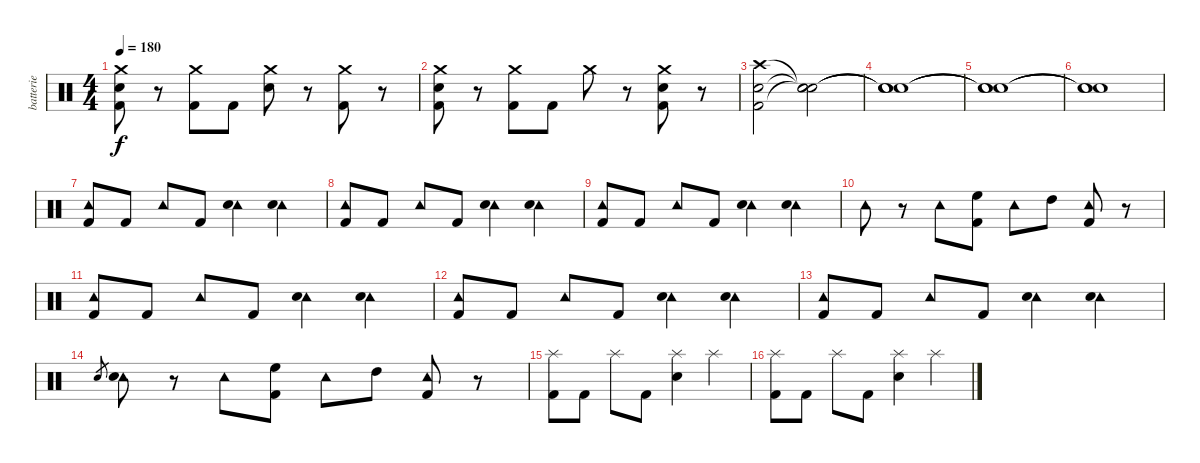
\track ("batterie" "batterie") {instrument percussion}
\staff {score}
\articulation defaults
\ts (4 4)
\tempo 180
\clef neutral
\ks c
("Crash medium (hit)" "Electric Snare (hit)" "Kick (hit) 2").8{dy f} r.8 ("Crash medium (hit)" "Kick (hit) 2").8 "Kick (hit) 2".8 ("Crash medium (hit)" "Electric Snare (hit)").8 r.8 ("Crash medium (hit)" "Kick (hit) 2").8 r.8 |
("Crash medium (hit)" "Electric Snare (hit)" "Kick (hit) 2").8 r.8 ("Crash medium (hit)" "Kick (hit) 2").8 "Kick (hit) 2".8 "Crash medium (hit)".8 r.8 ("Crash medium (hit)" "Electric Snare (hit)" "Kick (hit) 2").8 r.8 |
("Crash high (hit)" "Electric Snare (hit)" "Kick (hit) 2").2 ("Snare (hit)"{t} "Snare (hit)"{t} "Snare (hit)"{t}).2 |
("Snare (hit)"{t} "Snare (hit)"{t} "Snare (hit)"{t}).1 |
("Snare (hit)"{t} "Snare (hit)"{t} "Snare (hit)"{t}).1 |
("Snare (hit)"{t} "Snare (hit)"{t} "Snare (hit)"{t}).1 |
("Tambourine (hit)" "Kick (hit) 2").8 "Kick (hit) 2".8 "Tambourine (hit)".8 "Kick (hit) 2".8 ("Tambourine (hit)" "Electric Snare (hit)").4 ("Tambourine (hit)" "Electric Snare (hit)").4 |
("Tambourine (hit)" "Kick (hit) 2").8 "Kick (hit) 2".8 "Tambourine (hit)".8 "Kick (hit) 2".8 ("Tambourine (hit)" "Electric Snare (hit)").4 ("Tambourine (hit)" "Electric Snare (hit)").4 |
("Tambourine (hit)" "Kick (hit) 2").8 "Kick (hit) 2".8 "Tambourine (hit)".8 "Kick (hit) 2".8 ("Tambourine (hit)" "Electric Snare (hit)").4 ("Tambourine (hit)" "Electric Snare (hit)").4 |
"Tambourine (hit)".8 r.8 "Tambourine (hit)".8 ("High Floor Tom (hit)" "Kick (hit) 2").8 "Tambourine (hit)".8 "High Tom (hit)".8 ("Tambourine (hit)" "Kick (hit) 2").8 r.8 |
("Tambourine (hit)" "Kick (hit) 2").8 "Kick (hit) 2".8 "Tambourine (hit)".8 "Kick (hit) 2".8 ("Tambourine (hit)" "Electric Snare (hit)").4 ("Tambourine (hit)" "Electric Snare (hit)").4 |
("Tambourine (hit)" "Kick (hit) 2").8 "Kick (hit) 2".8 "Tambourine (hit)".8 "Kick (hit) 2".8 ("Tambourine (hit)" "Electric Snare (hit)").4 ("Tambourine (hit)" "Electric Snare (hit)").4 |
("Tambourine (hit)" "Kick (hit) 2").8 "Kick (hit) 2".8 "Tambourine (hit)".8 "Kick (hit) 2".8 ("Tambourine (hit)" "Electric Snare (hit)").4 ("Tambourine (hit)" "Electric Snare (hit)").4 |
"Electric Snare (hit)".8{gr} ("Tambourine (hit)" "Electric Snare (hit)").8 r.8 "Tambourine (hit)".8 ("High Floor Tom (hit)" "Kick (hit) 2").8 "Tambourine (hit)".8 "High Tom (hit)".8 ("Tambourine (hit)" "Kick (hit) 2").8 r.8 |
("Splash (hit)" "Kick (hit) 2").8 "Kick (hit) 2".8 "Splash (hit)".8 "Kick (hit) 2".8 ("Splash (hit)" "Electric Snare (hit)").4 "Splash (hit)".4 |
("Splash (hit)" "Kick (hit) 2").8 "Kick (hit) 2".8 "Splash (hit)".8 "Kick (hit) 2".8 ("Splash (hit)" "Electric Snare (hit)").4 "Splash (hit)".4
